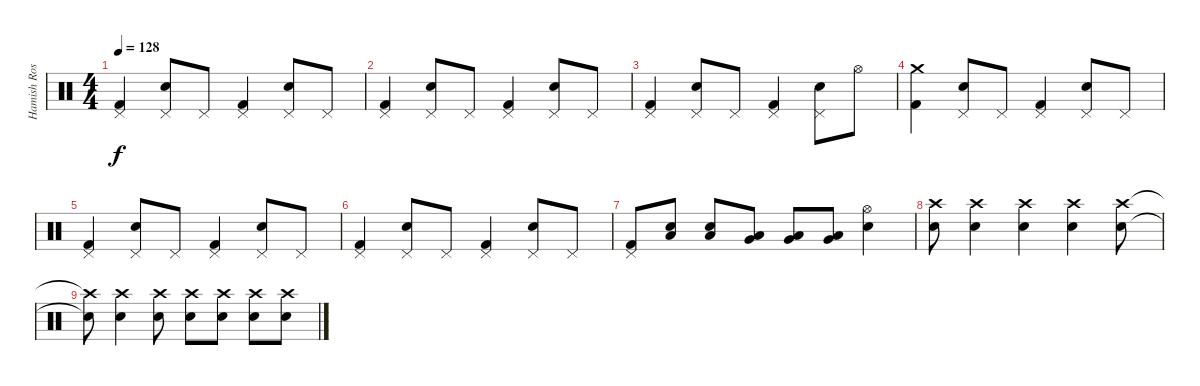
\track ("Hamish Rosser" "Hamish Ros") {instrument percussion}
\staff {score}
\articulation defaults
\ts (4 4)
\tempo 128
\clef neutral
\ks c
("Pedal Hi-Hat (hit)" "Kick (hit) 2").4{dy f} ("Pedal Hi-Hat (hit)" "Snare (hit) 2").8 "Pedal Hi-Hat (hit)".8 ("Pedal Hi-Hat (hit)" "Kick (hit) 2").4 ("Pedal Hi-Hat (hit)" "Snare (hit) 2").8 "Pedal Hi-Hat (hit)".8 |
("Pedal Hi-Hat (hit)" "Kick (hit) 2").4 ("Pedal Hi-Hat (hit)" "Snare (hit) 2").8 "Pedal Hi-Hat (hit)".8 ("Pedal Hi-Hat (hit)" "Kick (hit) 2").4 ("Pedal Hi-Hat (hit)" "Snare (hit) 2").8 "Pedal Hi-Hat (hit)".8 |
("Pedal Hi-Hat (hit)" "Kick (hit) 2").4 ("Pedal Hi-Hat (hit)" "Snare (hit) 2").8 "Pedal Hi-Hat (hit)".8 ("Pedal Hi-Hat (hit)" "Kick (hit) 2").4 ("Pedal Hi-Hat (hit)" "Snare (hit) 2").8 "Hi-Hat (open)".8 |
("Crash medium (hit)" "Kick (hit) 2").4 ("Pedal Hi-Hat (hit)" "Snare (hit) 2").8 "Pedal Hi-Hat (hit)".8 ("Pedal Hi-Hat (hit)" "Kick (hit) 2").4 ("Pedal Hi-Hat (hit)" "Snare (hit) 2").8 "Pedal Hi-Hat (hit)".8 |
("Pedal Hi-Hat (hit)" "Kick (hit) 2").4 ("Pedal Hi-Hat (hit)" "Snare (hit) 2").8 "Pedal Hi-Hat (hit)".8 ("Pedal Hi-Hat (hit)" "Kick (hit) 2").4 ("Pedal Hi-Hat (hit)" "Snare (hit) 2").8 "Pedal Hi-Hat (hit)".8 |
("Pedal Hi-Hat (hit)" "Kick (hit) 2").4 ("Pedal Hi-Hat (hit)" "Snare (hit) 2").8 "Pedal Hi-Hat (hit)".8 ("Pedal Hi-Hat (hit)" "Kick (hit) 2").4 ("Pedal Hi-Hat (hit)" "Snare (hit) 2").8 "Pedal Hi-Hat (hit)".8 |
("Pedal Hi-Hat (hit)" "Kick (hit) 2").8 ("Snare (hit) 2" "Low Tom (hit)").8 ("Snare (hit) 2" "Low Tom (hit)").8 ("Very Low Tom (hit)" "Low Tom (hit)").8 ("Very Low Tom (hit)" "Low Tom (hit)").8 ("Very Low Tom (hit)" "Low Tom (hit)").8 ("Hi-Hat (open)" "Snare (hit) 2").4 |
("Crash high (hit)" "Snare (hit) 2").8 ("Crash high (hit)" "Snare (hit) 2").4 ("Crash high (hit)" "Snare (hit) 2").4 ("Crash high (hit)" "Snare (hit) 2").4 ("Crash high (hit)" "Snare (hit) 2").8 |
("Crash high (hit)"{t} "Snare (hit) 2"{t}).8 ("Crash high (hit)" "Snare (hit) 2").4 ("Crash high (hit)" "Snare (hit) 2").8 ("Crash high (hit)" "Snare (hit) 2").8 ("Crash high (hit)" "Snare (hit) 2").8 ("Crash high (hit)" "Snare (hit) 2").8 ("Crash high (hit)" "Snare (hit) 2").8
